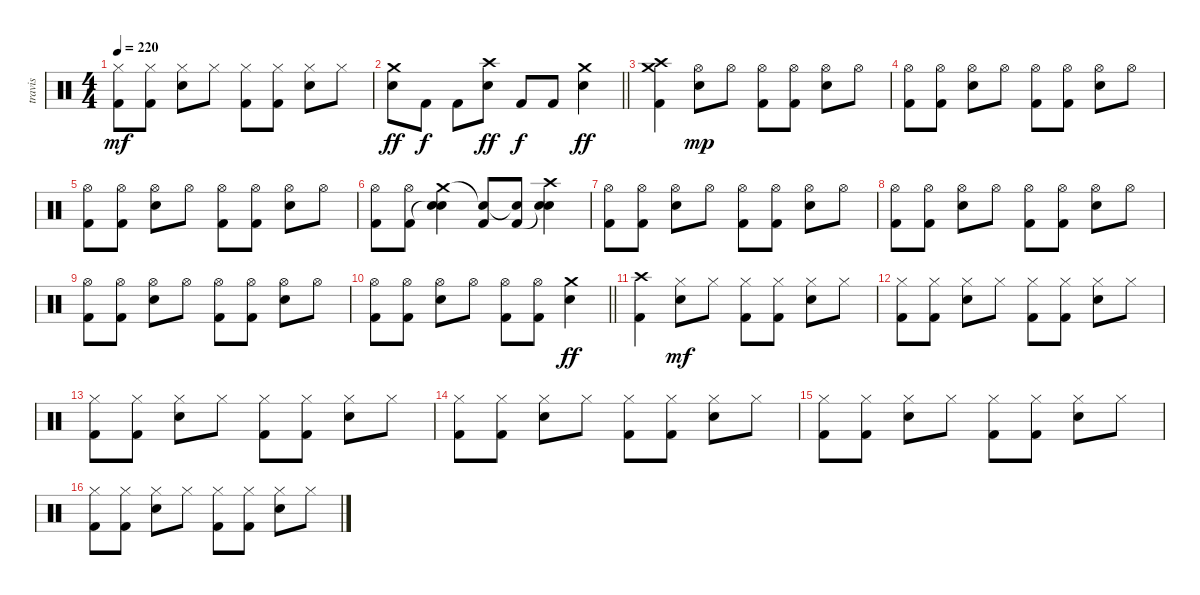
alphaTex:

\track ("travis" "travis") {instrument percussion}
\staff {score}
\articulation defaults
\ts (4 4)
\tempo 220
\clef neutral
\ks c
("Hi-Hat (closed)" "Kick (hit) 2").8{dy mf} ("Hi-Hat (closed)" "Kick (hit) 2").8 ("Hi-Hat (closed)" "Electric Snare (hit)").8 "Hi-Hat (closed)".8 ("Hi-Hat (closed)" "Kick (hit) 2").8 ("Hi-Hat (closed)" "Kick (hit) 2").8 ("Hi-Hat (closed)" "Electric Snare (hit)").8 "Hi-Hat (closed)".8 |
\barLineRight lightlight
("Crash medium (hit)" "Electric Snare (hit)").8{dy ff} "Kick (hit) 2".8{dy f} "Kick (hit) 2".8 ("Crash high (hit)" "Electric Snare (hit)").8{dy ff} "Kick (hit) 2".8{dy f} "Kick (hit) 2".8 ("Crash medium (hit)" "Electric Snare (hit)").4{dy ff} |
("Crash high (hit)" "Crash medium (hit)" "Kick (hit) 2").4 ("Hi-Hat (open)" "Electric Snare (hit)").8{dy mp} "Hi-Hat (open)".8 ("Hi-Hat (open)" "Kick (hit) 2").8 ("Hi-Hat (open)" "Kick (hit) 2").8 ("Hi-Hat (open)" "Electric Snare (hit)").8 "Hi-Hat (open)".8 |
("Hi-Hat (open)" "Kick (hit) 2").8 ("Hi-Hat (open)" "Kick (hit) 2").8 ("Hi-Hat (open)" "Electric Snare (hit)").8 "Hi-Hat (open)".8 ("Hi-Hat (open)" "Kick (hit) 2").8 ("Hi-Hat (open)" "Kick (hit) 2").8 ("Hi-Hat (open)" "Electric Snare (hit)").8 "Hi-Hat (open)".8 |
("Hi-Hat (open)" "Kick (hit) 2").8 ("Hi-Hat (open)" "Kick (hit) 2").8 ("Hi-Hat (open)" "Electric Snare (hit)").8 "Hi-Hat (open)".8 ("Hi-Hat (open)" "Kick (hit) 2").8 ("Hi-Hat (open)" "Kick (hit) 2").8 ("Hi-Hat (open)" "Electric Snare (hit)").8 "Hi-Hat (open)".8 |
("Hi-Hat (open)" "Kick (hit) 2").8 ("Hi-Hat (open)" "Kick (hit) 2").8 ("Crash medium (hit)" "Snare (hit)"{t} "Electric Snare (hit)").4 ("Snare (hit)"{t} "Kick (hit) 2").8 ("Snare (hit)"{t} "Kick (hit) 2").8 ("Crash high (hit)" "Snare (hit)"{t} "Electric Snare (hit)").4 |
("Hi-Hat (open)" "Kick (hit) 2").8 ("Hi-Hat (open)" "Kick (hit) 2").8 ("Hi-Hat (open)" "Electric Snare (hit)").8 "Hi-Hat (open)".8 ("Hi-Hat (open)" "Kick (hit) 2").8 ("Hi-Hat (open)" "Kick (hit) 2").8 ("Hi-Hat (open)" "Electric Snare (hit)").8 "Hi-Hat (open)".8 |
("Hi-Hat (open)" "Kick (hit) 2").8 ("Hi-Hat (open)" "Kick (hit) 2").8 ("Hi-Hat (open)" "Electric Snare (hit)").8 "Hi-Hat (open)".8 ("Hi-Hat (open)" "Kick (hit) 2").8 ("Hi-Hat (open)" "Kick (hit) 2").8 ("Hi-Hat (open)" "Electric Snare (hit)").8 "Hi-Hat (open)".8 |
("Hi-Hat (open)" "Kick (hit) 2").8 ("Hi-Hat (open)" "Kick (hit) 2").8 ("Hi-Hat (open)" "Electric Snare (hit)").8 "Hi-Hat (open)".8 ("Hi-Hat (open)" "Kick (hit) 2").8 ("Hi-Hat (open)" "Kick (hit) 2").8 ("Hi-Hat (open)" "Electric Snare (hit)").8 "Hi-Hat (open)".8 |
\barLineRight lightlight
("Hi-Hat (open)" "Kick (hit) 2").8 ("Hi-Hat (open)" "Kick (hit) 2").8 ("Hi-Hat (open)" "Electric Snare (hit)").8 "Hi-Hat (open)".8 ("Hi-Hat (open)" "Kick (hit) 2").8 ("Hi-Hat (open)" "Kick (hit) 2").8 ("Crash medium (hit)" "Electric Snare (hit)").4{dy ff} |
("Crash high (hit)" "Kick (hit) 2").4 ("Hi-Hat (closed)" "Electric Snare (hit)").8{dy mf} "Hi-Hat (closed)".8 ("Hi-Hat (closed)" "Kick (hit) 2").8 ("Hi-Hat (closed)" "Kick (hit) 2").8 ("Hi-Hat (closed)" "Electric Snare (hit)").8 "Hi-Hat (closed)".8 |
("Hi-Hat (closed)" "Kick (hit) 2").8 ("Hi-Hat (closed)" "Kick (hit) 2").8 ("Hi-Hat (closed)" "Electric Snare (hit)").8 "Hi-Hat (closed)".8 ("Hi-Hat (closed)" "Kick (hit) 2").8 ("Hi-Hat (closed)" "Kick (hit) 2").8 ("Hi-Hat (closed)" "Electric Snare (hit)").8 "Hi-Hat (closed)".8 |
("Hi-Hat (closed)" "Kick (hit) 2").8 ("Hi-Hat (closed)" "Kick (hit) 2").8 ("Hi-Hat (closed)" "Electric Snare (hit)").8 "Hi-Hat (closed)".8 ("Hi-Hat (closed)" "Kick (hit) 2").8 ("Hi-Hat (closed)" "Kick (hit) 2").8 ("Hi-Hat (closed)" "Electric Snare (hit)").8 "Hi-Hat (closed)".8 |
("Hi-Hat (closed)" "Kick (hit) 2").8 ("Hi-Hat (closed)" "Kick (hit) 2").8 ("Hi-Hat (closed)" "Electric Snare (hit)").8 "Hi-Hat (closed)".8 ("Hi-Hat (closed)" "Kick (hit) 2").8 ("Hi-Hat (closed)" "Kick (hit) 2").8 ("Hi-Hat (closed)" "Electric Snare (hit)").8 "Hi-Hat (closed)".8 |
("Hi-Hat (closed)" "Kick (hit) 2").8 ("Hi-Hat (closed)" "Kick (hit) 2").8 ("Hi-Hat (closed)" "Electric Snare (hit)").8 "Hi-Hat (closed)".8 ("Hi-Hat (closed)" "Kick (hit) 2").8 ("Hi-Hat (closed)" "Kick (hit) 2").8 ("Hi-Hat (closed)" "Electric Snare (hit)").8 "Hi-Hat (closed)".8 |
("Hi-Hat (closed)" "Kick (hit) 2").8 ("Hi-Hat (closed)" "Kick (hit) 2").8 ("Hi-Hat (closed)" "Electric Snare (hit)").8 "Hi-Hat (closed)".8 ("Hi-Hat (closed)" "Kick (hit) 2").8 ("Hi-Hat (closed)" "Kick (hit) 2").8 ("Hi-Hat (closed)" "Electric Snare (hit)").8 "Hi-Hat (closed)".8
